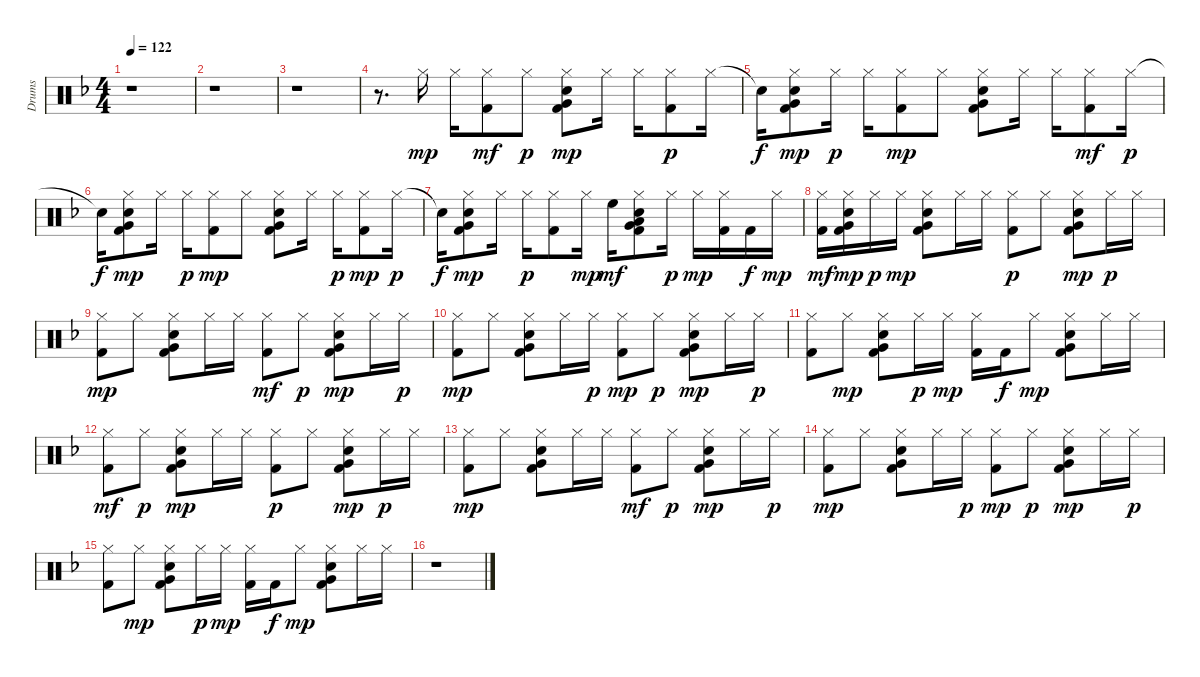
\track ("Drums" "Drums") {instrument percussion}
\staff {score}
\articulation defaults
\ts (4 4)
\tempo 122
\clef neutral
\ks f
r.1{dy mp} |
r.1 |
r.1 |
r.8{d} "Hi-Hat (closed)".16 "Hi-Hat (closed)".16 ("Kick (hit) 2" "Hi-Hat (closed)").8{dy mf} "Hi-Hat (closed)".8{dy p} ("Kick (hit) 2" "Snare (hit) 2" "Hi-Hat (closed)" "Very Low Tom (hit)").8{dy mp} "Hi-Hat (closed)".16 "Hi-Hat (closed)".16 ("Kick (hit) 2" "Hi-Hat (closed)").8{dy p} "Hi-Hat (closed)".16 |
"Snare (hit)"{t}.16{dy f} ("Kick (hit) 2" "Snare (hit) 2" "Hi-Hat (closed)" "Very Low Tom (hit)").8{dy mp} "Hi-Hat (closed)".16{dy p} "Hi-Hat (closed)".16 ("Kick (hit) 2" "Hi-Hat (closed)").8{dy mp} "Hi-Hat (closed)".8 ("Kick (hit) 2" "Snare (hit) 2" "Hi-Hat (closed)" "Very Low Tom (hit)").8 "Hi-Hat (closed)".16 "Hi-Hat (closed)".16 ("Kick (hit) 2" "Hi-Hat (closed)").8{dy mf} "Hi-Hat (closed)".16{dy p} |
"Snare (hit)"{t}.16{dy f} ("Kick (hit) 2" "Snare (hit) 2" "Hi-Hat (closed)" "Very Low Tom (hit)").8{dy mp} "Hi-Hat (closed)".16 "Hi-Hat (closed)".16{dy p} ("Kick (hit) 2" "Hi-Hat (closed)").8{dy mp} "Hi-Hat (closed)".8 ("Kick (hit) 2" "Snare (hit) 2" "Hi-Hat (closed)" "Very Low Tom (hit)").8 "Hi-Hat (closed)".16 "Hi-Hat (closed)".16{dy p} ("Kick (hit) 2" "Hi-Hat (closed)").8{dy mp} "Hi-Hat (closed)".16{dy p} |
"Snare (hit)"{t}.16{dy f} ("Kick (hit) 2" "Snare (hit) 2" "Hi-Hat (closed)" "Very Low Tom (hit)").8{dy mp} "Hi-Hat (closed)".16 "Hi-Hat (closed)".16{dy p} ("Kick (hit) 2" "Hi-Hat (closed)").8 "Hi-Hat (closed)".16{dy mp} "High Floor Tom (hit)".16{dy mf} ("Kick (hit) 2" "Snare (hit) 2" "Hi-Hat (closed)" "Very Low Tom (hit)" "Low Tom (hit)").8 "Hi-Hat (closed)".16{dy p} "Hi-Hat (closed)".16{dy mp} ("Kick (hit) 2" "Hi-Hat (closed)").16 "Kick (hit) 2".16{dy f} "Hi-Hat (closed)".16{dy mp} |
("Kick (hit) 2" "Hi-Hat (closed)").16{dy mf} ("Kick (hit) 2" "Snare (hit) 2" "Hi-Hat (closed)" "Very Low Tom (hit)").16{dy mp} "Hi-Hat (closed)".16{dy p} "Hi-Hat (closed)".16{dy mp} ("Kick (hit) 2" "Snare (hit) 2" "Hi-Hat (closed)" "Very Low Tom (hit)").8 "Hi-Hat (closed)".16 "Hi-Hat (closed)".16 ("Kick (hit) 2" "Hi-Hat (closed)").8{dy p} "Hi-Hat (closed)".8 ("Kick (hit) 2" "Snare (hit) 2" "Hi-Hat (closed)" "Very Low Tom (hit)").8{dy mp} "Hi-Hat (closed)".16{dy p} "Hi-Hat (closed)".16 |
("Kick (hit) 2" "Hi-Hat (closed)").8{dy mp} "Hi-Hat (closed)".8 ("Kick (hit) 2" "Snare (hit) 2" "Hi-Hat (closed)" "Very Low Tom (hit)").8 "Hi-Hat (closed)".16 "Hi-Hat (closed)".16 ("Kick (hit) 2" "Hi-Hat (closed)").8{dy mf} "Hi-Hat (closed)".8{dy p} ("Kick (hit) 2" "Snare (hit) 2" "Hi-Hat (closed)" "Very Low Tom (hit)").8{dy mp} "Hi-Hat (closed)".16 "Hi-Hat (closed)".16{dy p} |
("Kick (hit) 2" "Hi-Hat (closed)").8{dy mp} "Hi-Hat (closed)".8 ("Kick (hit) 2" "Snare (hit) 2" "Hi-Hat (closed)" "Very Low Tom (hit)").8 "Hi-Hat (closed)".16 "Hi-Hat (closed)".16{dy p} ("Kick (hit) 2" "Hi-Hat (closed)").8{dy mp} "Hi-Hat (closed)".8{dy p} ("Kick (hit) 2" "Snare (hit) 2" "Hi-Hat (closed)" "Very Low Tom (hit)").8{dy mp} "Hi-Hat (closed)".16 "Hi-Hat (closed)".16{dy p} |
("Kick (hit) 2" "Hi-Hat (closed)").8 "Hi-Hat (closed)".8{dy mp} ("Kick (hit) 2" "Snare (hit) 2" "Hi-Hat (closed)" "Very Low Tom (hit)").8 "Hi-Hat (closed)".16{dy p} "Hi-Hat (closed)".16{dy mp} ("Kick (hit) 2" "Hi-Hat (closed)").16 "Kick (hit) 2".16{dy f} "Hi-Hat (closed)".8{dy mp} ("Kick (hit) 2" "Snare (hit) 2" "Hi-Hat (closed)" "Very Low Tom (hit)").8 "Hi-Hat (closed)".16 "Hi-Hat (closed)".16 |
("Kick (hit) 2" "Hi-Hat (closed)").8{dy mf} "Hi-Hat (closed)".8{dy p} ("Kick (hit) 2" "Snare (hit) 2" "Hi-Hat (closed)" "Very Low Tom (hit)").8{dy mp} "Hi-Hat (closed)".16 "Hi-Hat (closed)".16 ("Kick (hit) 2" "Hi-Hat (closed)").8{dy p} "Hi-Hat (closed)".8 ("Kick (hit) 2" "Snare (hit) 2" "Hi-Hat (closed)" "Very Low Tom (hit)").8{dy mp} "Hi-Hat (closed)".16{dy p} "Hi-Hat (closed)".16 |
("Kick (hit) 2" "Hi-Hat (closed)").8{dy mp} "Hi-Hat (closed)".8 ("Kick (hit) 2" "Snare (hit) 2" "Hi-Hat (closed)" "Very Low Tom (hit)").8 "Hi-Hat (closed)".16 "Hi-Hat (closed)".16 ("Kick (hit) 2" "Hi-Hat (closed)").8{dy mf} "Hi-Hat (closed)".8{dy p} ("Kick (hit) 2" "Snare (hit) 2" "Hi-Hat (closed)" "Very Low Tom (hit)").8{dy mp} "Hi-Hat (closed)".16 "Hi-Hat (closed)".16{dy p} |
("Kick (hit) 2" "Hi-Hat (closed)").8{dy mp} "Hi-Hat (closed)".8 ("Kick (hit) 2" "Snare (hit) 2" "Hi-Hat (closed)" "Very Low Tom (hit)").8 "Hi-Hat (closed)".16 "Hi-Hat (closed)".16{dy p} ("Kick (hit) 2" "Hi-Hat (closed)").8{dy mp} "Hi-Hat (closed)".8{dy p} ("Kick (hit) 2" "Snare (hit) 2" "Hi-Hat (closed)" "Very Low Tom (hit)").8{dy mp} "Hi-Hat (closed)".16 "Hi-Hat (closed)".16{dy p} |
("Kick (hit) 2" "Hi-Hat (closed)").8 "Hi-Hat (closed)".8{dy mp} ("Kick (hit) 2" "Snare (hit) 2" "Hi-Hat (closed)" "Very Low Tom (hit)").8 "Hi-Hat (closed)".16{dy p} "Hi-Hat (closed)".16{dy mp} ("Kick (hit) 2" "Hi-Hat (closed)").16 "Kick (hit) 2".16{dy f} "Hi-Hat (closed)".8{dy mp} ("Kick (hit) 2" "Snare (hit) 2" "Hi-Hat (closed)" "Very Low Tom (hit)").8 "Hi-Hat (closed)".16 "Hi-Hat (closed)".16 |
r.1
